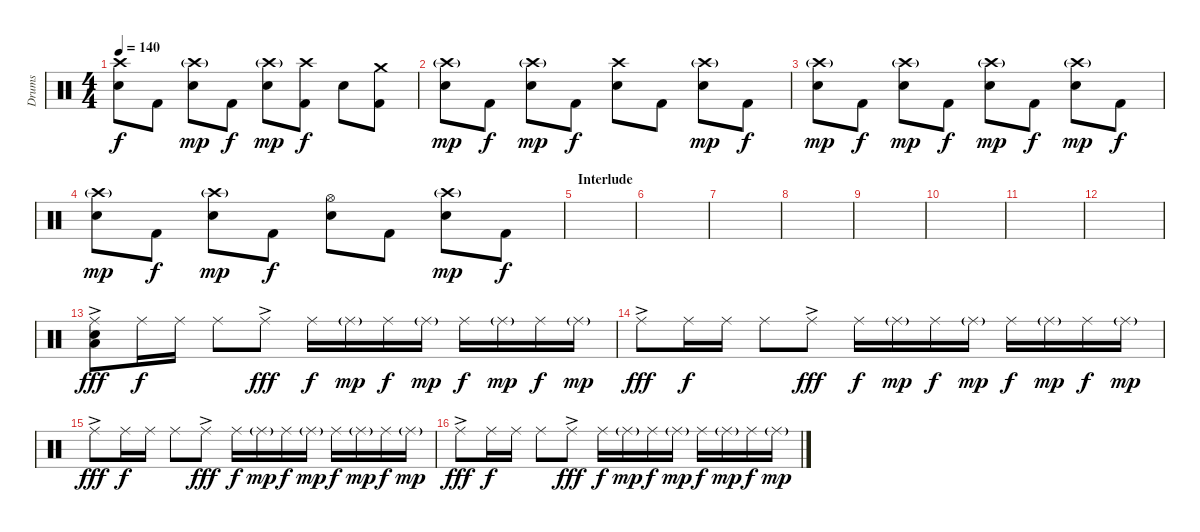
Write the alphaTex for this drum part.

\track ("Drums" "Drums") {instrument percussion}
\staff {score}
\articulation defaults
\ts (4 4)
\tempo 140
\clef neutral
\ks c
("Electric Snare (hit)" "Crash high (hit)").8{dy f} "Kick (hit) 2".8 ("Electric Snare (hit)" "Crash high (hit)"{g}).8{dy mp} "Kick (hit) 2".8{dy f} ("Electric Snare (hit)" "Crash high (hit)"{g}).8{dy mp} ("Kick (hit) 2" "Crash high (hit)").8{dy f} "Electric Snare (hit)".8 ("Kick (hit) 2" "Crash medium (hit)").8 |
("Electric Snare (hit)" "Crash high (hit)"{g}).8{dy mp} "Kick (hit) 2".8{dy f} ("Electric Snare (hit)" "Crash high (hit)"{g}).8{dy mp} "Kick (hit) 2".8{dy f} ("Electric Snare (hit)" "Crash high (hit)").8 "Kick (hit) 2".8 ("Electric Snare (hit)" "Crash high (hit)"{g}).8{dy mp} "Kick (hit) 2".8{dy f} |
("Electric Snare (hit)" "Crash high (hit)"{g}).8{dy mp} "Kick (hit) 2".8{dy f} ("Electric Snare (hit)" "Crash high (hit)"{g}).8{dy mp} "Kick (hit) 2".8{dy f} ("Electric Snare (hit)" "Crash high (hit)"{g}).8{dy mp} "Kick (hit) 2".8{dy f} ("Electric Snare (hit)" "Crash high (hit)"{g}).8{dy mp} "Kick (hit) 2".8{dy f} |
("Electric Snare (hit)" "Crash high (hit)"{g}).8{dy mp} "Kick (hit) 2".8{dy f} ("Electric Snare (hit)" "Crash high (hit)"{g}).8{dy mp} "Kick (hit) 2".8{dy f} ("Electric Snare (hit)" "Hi-Hat (open)").8 "Kick (hit) 2".8 ("Electric Snare (hit)" "Crash high (hit)"{g}).8{dy mp} "Kick (hit) 2".8{dy f} |
\section ("" "Interlude")
|
|
|
|
|
|
|
|
("Ride (middle)"{ac} "Low Tom (hit)" "Snare (hit) 2").8{dy fff balance 5} "Ride (middle)".16{dy f} "Ride (middle)".16 "Ride (middle)".8 "Ride (middle)"{ac}.8{dy fff} "Ride (middle)".16{dy f} "Ride (middle)"{g}.16{dy mp} "Ride (middle)".16{dy f} "Ride (middle)"{g}.16{dy mp} "Ride (middle)".16{dy f} "Ride (middle)"{g}.16{dy mp} "Ride (middle)".16{dy f} "Ride (middle)"{g}.16{dy mp} |
"Ride (middle)"{ac}.8{dy fff} "Ride (middle)".16{dy f} "Ride (middle)".16 "Ride (middle)".8 "Ride (middle)"{ac}.8{dy fff} "Ride (middle)".16{dy f} "Ride (middle)"{g}.16{dy mp} "Ride (middle)".16{dy f} "Ride (middle)"{g}.16{dy mp} "Ride (middle)".16{dy f} "Ride (middle)"{g}.16{dy mp} "Ride (middle)".16{dy f} "Ride (middle)"{g}.16{dy mp} |
"Ride (middle)"{ac}.8{dy fff} "Ride (middle)".16{dy f} "Ride (middle)".16 "Ride (middle)".8 "Ride (middle)"{ac}.8{dy fff} "Ride (middle)".16{dy f} "Ride (middle)"{g}.16{dy mp} "Ride (middle)".16{dy f} "Ride (middle)"{g}.16{dy mp} "Ride (middle)".16{dy f} "Ride (middle)"{g}.16{dy mp} "Ride (middle)".16{dy f} "Ride (middle)"{g}.16{dy mp} |
"Ride (middle)"{ac}.8{dy fff} "Ride (middle)".16{dy f} "Ride (middle)".16 "Ride (middle)".8 "Ride (middle)"{ac}.8{dy fff} "Ride (middle)".16{dy f} "Ride (middle)"{g}.16{dy mp} "Ride (middle)".16{dy f} "Ride (middle)"{g}.16{dy mp} "Ride (middle)".16{dy f} "Ride (middle)"{g}.16{dy mp} "Ride (middle)".16{dy f} "Ride (middle)"{g}.16{dy mp}
